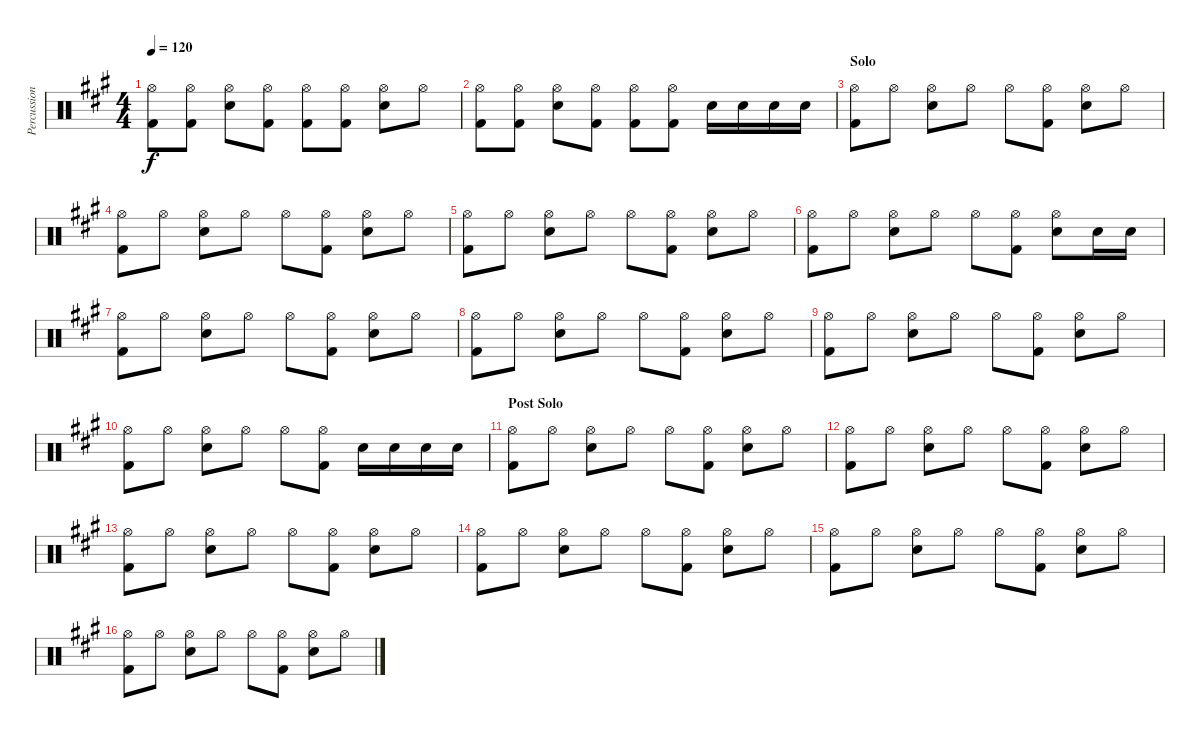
\track ("Percussion" "Percussion") {instrument percussion}
\staff {score}
\articulation defaults
\ts (4 4)
\tempo 120
\clef neutral
\ks a
("Hi-Hat (open)" "Kick (hit) 2").8{dy f} ("Hi-Hat (open)" "Kick (hit) 2").8 ("Hi-Hat (open)" "Snare (hit) 2").8 ("Hi-Hat (open)" "Kick (hit) 2").8 ("Hi-Hat (open)" "Kick (hit) 2").8 ("Hi-Hat (open)" "Kick (hit) 2").8 ("Hi-Hat (open)" "Snare (hit) 2").8 "Hi-Hat (open)".8 |
("Hi-Hat (open)" "Kick (hit) 2").8 ("Hi-Hat (open)" "Kick (hit) 2").8 ("Hi-Hat (open)" "Snare (hit) 2").8 ("Hi-Hat (open)" "Kick (hit) 2").8 ("Hi-Hat (open)" "Kick (hit) 2").8 ("Hi-Hat (open)" "Kick (hit) 2").8 "Snare (hit) 2".16 "Snare (hit) 2".16 "Snare (hit) 2".16 "Snare (hit) 2".16 |
\section ("" "Solo")
("Hi-Hat (open)" "Kick (hit) 2").8 "Hi-Hat (open)".8 ("Hi-Hat (open)" "Snare (hit) 2").8 "Hi-Hat (open)".8 "Hi-Hat (open)".8 ("Hi-Hat (open)" "Kick (hit) 2").8 ("Hi-Hat (open)" "Snare (hit) 2").8 "Hi-Hat (open)".8 |
("Hi-Hat (open)" "Kick (hit) 2").8 "Hi-Hat (open)".8 ("Hi-Hat (open)" "Snare (hit) 2").8 "Hi-Hat (open)".8 "Hi-Hat (open)".8 ("Hi-Hat (open)" "Kick (hit) 2").8 ("Hi-Hat (open)" "Snare (hit) 2").8 "Hi-Hat (open)".8 |
("Hi-Hat (open)" "Kick (hit) 2").8 "Hi-Hat (open)".8 ("Hi-Hat (open)" "Snare (hit) 2").8 "Hi-Hat (open)".8 "Hi-Hat (open)".8 ("Hi-Hat (open)" "Kick (hit) 2").8 ("Hi-Hat (open)" "Snare (hit) 2").8 "Hi-Hat (open)".8 |
("Hi-Hat (open)" "Kick (hit) 2").8 "Hi-Hat (open)".8 ("Hi-Hat (open)" "Snare (hit) 2").8 "Hi-Hat (open)".8 "Hi-Hat (open)".8 ("Hi-Hat (open)" "Kick (hit) 2").8 ("Hi-Hat (open)" "Snare (hit) 2").8 "Snare (hit) 2".16 "Snare (hit) 2".16 |
("Hi-Hat (open)" "Kick (hit) 2").8 "Hi-Hat (open)".8 ("Hi-Hat (open)" "Snare (hit) 2").8 "Hi-Hat (open)".8 "Hi-Hat (open)".8 ("Hi-Hat (open)" "Kick (hit) 2").8 ("Hi-Hat (open)" "Snare (hit) 2").8 "Hi-Hat (open)".8 |
("Hi-Hat (open)" "Kick (hit) 2").8 "Hi-Hat (open)".8 ("Hi-Hat (open)" "Snare (hit) 2").8 "Hi-Hat (open)".8 "Hi-Hat (open)".8 ("Hi-Hat (open)" "Kick (hit) 2").8 ("Hi-Hat (open)" "Snare (hit) 2").8 "Hi-Hat (open)".8 |
("Hi-Hat (open)" "Kick (hit) 2").8 "Hi-Hat (open)".8 ("Hi-Hat (open)" "Snare (hit) 2").8 "Hi-Hat (open)".8 "Hi-Hat (open)".8 ("Hi-Hat (open)" "Kick (hit) 2").8 ("Hi-Hat (open)" "Snare (hit) 2").8 "Hi-Hat (open)".8 |
("Hi-Hat (open)" "Kick (hit) 2").8 "Hi-Hat (open)".8 ("Hi-Hat (open)" "Snare (hit) 2").8 "Hi-Hat (open)".8 "Hi-Hat (open)".8 ("Hi-Hat (open)" "Kick (hit) 2").8 "Snare (hit) 2".16 "Snare (hit) 2".16 "Snare (hit) 2".16 "Snare (hit) 2".16 |
\section ("" "Post Solo")
("Hi-Hat (open)" "Kick (hit) 2").8 "Hi-Hat (open)".8 ("Hi-Hat (open)" "Snare (hit) 2").8 "Hi-Hat (open)".8 "Hi-Hat (open)".8 ("Hi-Hat (open)" "Kick (hit) 2").8 ("Hi-Hat (open)" "Snare (hit) 2").8 "Hi-Hat (open)".8 |
("Hi-Hat (open)" "Kick (hit) 2").8 "Hi-Hat (open)".8 ("Hi-Hat (open)" "Snare (hit) 2").8 "Hi-Hat (open)".8 "Hi-Hat (open)".8 ("Hi-Hat (open)" "Kick (hit) 2").8 ("Hi-Hat (open)" "Snare (hit) 2").8 "Hi-Hat (open)".8 |
("Hi-Hat (open)" "Kick (hit) 2").8 "Hi-Hat (open)".8 ("Hi-Hat (open)" "Snare (hit) 2").8 "Hi-Hat (open)".8 "Hi-Hat (open)".8 ("Hi-Hat (open)" "Kick (hit) 2").8 ("Hi-Hat (open)" "Snare (hit) 2").8 "Hi-Hat (open)".8 |
("Hi-Hat (open)" "Kick (hit) 2").8 "Hi-Hat (open)".8 ("Hi-Hat (open)" "Snare (hit) 2").8 "Hi-Hat (open)".8 "Hi-Hat (open)".8 ("Hi-Hat (open)" "Kick (hit) 2").8 ("Hi-Hat (open)" "Snare (hit) 2").8 "Hi-Hat (open)".8 |
("Hi-Hat (open)" "Kick (hit) 2").8 "Hi-Hat (open)".8 ("Hi-Hat (open)" "Snare (hit) 2").8 "Hi-Hat (open)".8 "Hi-Hat (open)".8 ("Hi-Hat (open)" "Kick (hit) 2").8 ("Hi-Hat (open)" "Snare (hit) 2").8 "Hi-Hat (open)".8 |
("Hi-Hat (open)" "Kick (hit) 2").8 "Hi-Hat (open)".8 ("Hi-Hat (open)" "Snare (hit) 2").8 "Hi-Hat (open)".8 "Hi-Hat (open)".8 ("Hi-Hat (open)" "Kick (hit) 2").8 ("Hi-Hat (open)" "Snare (hit) 2").8 "Hi-Hat (open)".8
